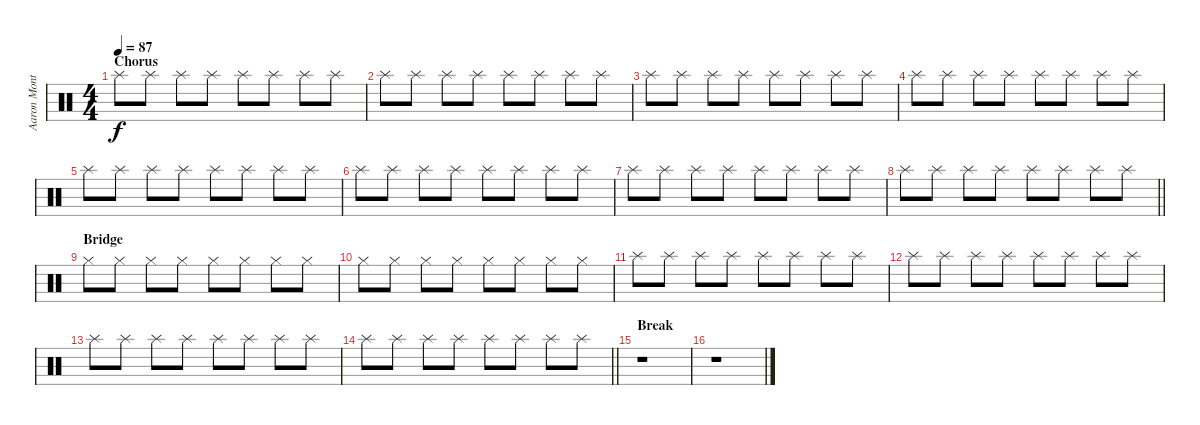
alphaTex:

\track ("Aaron Montgomery (Drums)" "Aaron Mont") {instrument percussion}
\staff {score}
\articulation defaults
\ts (4 4)
\section ("" "Chorus")
\tempo 87
\clef neutral
\ks c "Splash (hit)".8{dy f} "Splash (hit)".8 "Splash (hit)".8 "Splash (hit)".8 "Splash (hit)".8 "Splash (hit)".8 "Splash (hit)".8 "Splash (hit)".8
|
"Splash (hit)".8 "Splash (hit)".8 "Splash (hit)".8 "Splash (hit)".8 "Splash (hit)".8 "Splash (hit)".8 "Splash (hit)".8 "Splash (hit)".8 |
"Splash (hit)".8 "Splash (hit)".8 "Splash (hit)".8 "Splash (hit)".8 "Splash (hit)".8 "Splash (hit)".8 "Splash (hit)".8 "Splash (hit)".8 |
"Splash (hit)".8 "Splash (hit)".8 "Splash (hit)".8 "Splash (hit)".8 "Splash (hit)".8 "Splash (hit)".8 "Splash (hit)".8 "Splash (hit)".8 |
"Splash (hit)".8 "Splash (hit)".8 "Splash (hit)".8 "Splash (hit)".8 "Splash (hit)".8 "Splash (hit)".8 "Splash (hit)".8 "Splash (hit)".8 |
"Splash (hit)".8 "Splash (hit)".8 "Splash (hit)".8 "Splash (hit)".8 "Splash (hit)".8 "Splash (hit)".8 "Splash (hit)".8 "Splash (hit)".8 |
"Splash (hit)".8 "Splash (hit)".8 "Splash (hit)".8 "Splash (hit)".8 "Splash (hit)".8 "Splash (hit)".8 "Splash (hit)".8 "Splash (hit)".8 |
\barLineRight lightlight "Splash (hit)".8 "Splash (hit)".8 "Splash (hit)".8 "Splash (hit)".8 "Splash (hit)".8 "Splash (hit)".8 "Splash (hit)".8 "Splash (hit)".8
|
\section ("" "Bridge")
"Hi-Hat (closed)".8 "Hi-Hat (closed)".8 "Hi-Hat (closed)".8 "Hi-Hat (closed)".8 "Hi-Hat (closed)".8 "Hi-Hat (closed)".8 "Hi-Hat (closed)".8 "Hi-Hat (closed)".8 |
"Hi-Hat (closed)".8 "Hi-Hat (closed)".8 "Hi-Hat (closed)".8 "Hi-Hat (closed)".8 "Hi-Hat (closed)".8 "Hi-Hat (closed)".8 "Hi-Hat (closed)".8 "Hi-Hat (closed)".8 |
"Splash (hit)".8 "Splash (hit)".8 "Splash (hit)".8 "Splash (hit)".8 "Splash (hit)".8 "Splash (hit)".8 "Splash (hit)".8 "Splash (hit)".8 |
"Splash (hit)".8 "Splash (hit)".8 "Splash (hit)".8 "Splash (hit)".8 "Splash (hit)".8 "Splash (hit)".8 "Splash (hit)".8 "Splash (hit)".8 |
"Splash (hit)".8 "Splash (hit)".8 "Splash (hit)".8 "Splash (hit)".8 "Splash (hit)".8 "Splash (hit)".8 "Splash (hit)".8 "Splash (hit)".8 |
\barLineRight lightlight "Splash (hit)".8 "Splash (hit)".8 "Splash (hit)".8 "Splash (hit)".8 "Splash (hit)".8 "Splash (hit)".8 "Splash (hit)".8 "Splash (hit)".8
|
\section ("" "Break")
r.1 |
r.1
